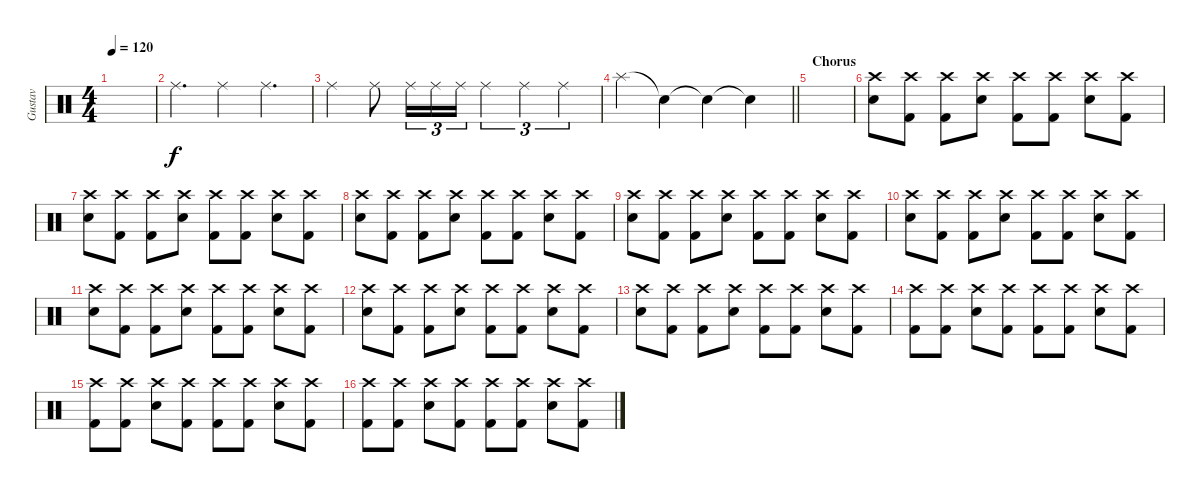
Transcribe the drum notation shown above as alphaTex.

\track ("Gustav" "Gustav") {instrument percussion}
\staff {score}
\articulation defaults
\ts (4 4)
\tempo 120
\clef neutral
\ks c
|
"Ride (middle)".4{d volume 16} "Ride (middle)".4 "Ride (middle)".4{d} |
"Ride (middle)".4 "Ride (middle)".8 "Ride (middle)".16{tu (3 2)} "Ride (middle)".16{tu (3 2)} "Ride (middle)".16{tu (3 2)} "Ride (middle)".4{tu (3 2)} "Ride (middle)".4{tu (3 2)} "Ride (middle)".4{tu (3 2)} |
\barLineRight lightlight "Splash (hit)".4 "Snare (hit)"{t}.4 "Snare (hit)"{t}.4 "Snare (hit)"{t}.4
|
\section ("" "Chorus")
|
("Snare (hit) 2" "Crash high (hit)").8 ("Kick (hit) 2" "Crash high (hit)").8 ("Crash high (hit)" "Kick (hit) 2").8 ("Snare (hit) 2" "Crash high (hit)").8 ("Kick (hit) 2" "Crash high (hit)").8 ("Kick (hit) 2" "Crash high (hit)").8 ("Snare (hit) 2" "Crash high (hit)").8 ("Crash high (hit)" "Kick (hit) 2").8 |
("Snare (hit) 2" "Crash high (hit)").8 ("Kick (hit) 2" "Crash high (hit)").8 ("Crash high (hit)" "Kick (hit) 2").8 ("Snare (hit) 2" "Crash high (hit)").8 ("Kick (hit) 2" "Crash high (hit)").8 ("Kick (hit) 2" "Crash high (hit)").8 ("Snare (hit) 2" "Crash high (hit)").8 ("Crash high (hit)" "Kick (hit) 2").8 |
("Snare (hit) 2" "Crash high (hit)").8 ("Kick (hit) 2" "Crash high (hit)").8 ("Crash high (hit)" "Kick (hit) 2").8 ("Snare (hit) 2" "Crash high (hit)").8 ("Kick (hit) 2" "Crash high (hit)").8 ("Kick (hit) 2" "Crash high (hit)").8 ("Snare (hit) 2" "Crash high (hit)").8 ("Crash high (hit)" "Kick (hit) 2").8 |
("Snare (hit) 2" "Crash high (hit)").8 ("Kick (hit) 2" "Crash high (hit)").8 ("Crash high (hit)" "Kick (hit) 2").8 ("Snare (hit) 2" "Crash high (hit)").8 ("Kick (hit) 2" "Crash high (hit)").8 ("Kick (hit) 2" "Crash high (hit)").8 ("Snare (hit) 2" "Crash high (hit)").8 ("Crash high (hit)" "Kick (hit) 2").8 |
("Snare (hit) 2" "Crash high (hit)").8 ("Kick (hit) 2" "Crash high (hit)").8 ("Crash high (hit)" "Kick (hit) 2").8 ("Snare (hit) 2" "Crash high (hit)").8 ("Kick (hit) 2" "Crash high (hit)").8 ("Kick (hit) 2" "Crash high (hit)").8 ("Snare (hit) 2" "Crash high (hit)").8 ("Crash high (hit)" "Kick (hit) 2").8 |
("Snare (hit) 2" "Crash high (hit)").8 ("Kick (hit) 2" "Crash high (hit)").8 ("Crash high (hit)" "Kick (hit) 2").8 ("Snare (hit) 2" "Crash high (hit)").8 ("Kick (hit) 2" "Crash high (hit)").8 ("Kick (hit) 2" "Crash high (hit)").8 ("Snare (hit) 2" "Crash high (hit)").8 ("Crash high (hit)" "Kick (hit) 2").8 |
("Snare (hit) 2" "Crash high (hit)").8 ("Kick (hit) 2" "Crash high (hit)").8 ("Crash high (hit)" "Kick (hit) 2").8 ("Snare (hit) 2" "Crash high (hit)").8 ("Kick (hit) 2" "Crash high (hit)").8 ("Kick (hit) 2" "Crash high (hit)").8 ("Snare (hit) 2" "Crash high (hit)").8 ("Crash high (hit)" "Kick (hit) 2").8 |
("Snare (hit) 2" "Crash high (hit)").8 ("Kick (hit) 2" "Crash high (hit)").8 ("Crash high (hit)" "Kick (hit) 2").8 ("Snare (hit) 2" "Crash high (hit)").8 ("Kick (hit) 2" "Crash high (hit)").8 ("Kick (hit) 2" "Crash high (hit)").8 ("Snare (hit) 2" "Crash high (hit)").8 ("Crash high (hit)" "Kick (hit) 2").8 |
("Crash high (hit)" "Kick (hit) 2").8 ("Crash high (hit)" "Kick (hit) 2").8 ("Snare (hit) 2" "Crash high (hit)").8 ("Crash high (hit)" "Kick (hit) 2").8 ("Kick (hit) 2" "Crash high (hit)").8 ("Crash high (hit)" "Kick (hit) 2").8 ("Snare (hit) 2" "Crash high (hit)").8 ("Crash high (hit)" "Kick (hit) 2").8 |
("Crash high (hit)" "Kick (hit) 2").8 ("Crash high (hit)" "Kick (hit) 2").8 ("Snare (hit) 2" "Crash high (hit)").8 ("Crash high (hit)" "Kick (hit) 2").8 ("Kick (hit) 2" "Crash high (hit)").8 ("Crash high (hit)" "Kick (hit) 2").8 ("Snare (hit) 2" "Crash high (hit)").8 ("Crash high (hit)" "Kick (hit) 2").8 |
("Crash high (hit)" "Kick (hit) 2").8 ("Crash high (hit)" "Kick (hit) 2").8 ("Snare (hit) 2" "Crash high (hit)").8 ("Crash high (hit)" "Kick (hit) 2").8 ("Kick (hit) 2" "Crash high (hit)").8 ("Crash high (hit)" "Kick (hit) 2").8 ("Snare (hit) 2" "Crash high (hit)").8 ("Crash high (hit)" "Kick (hit) 2").8
